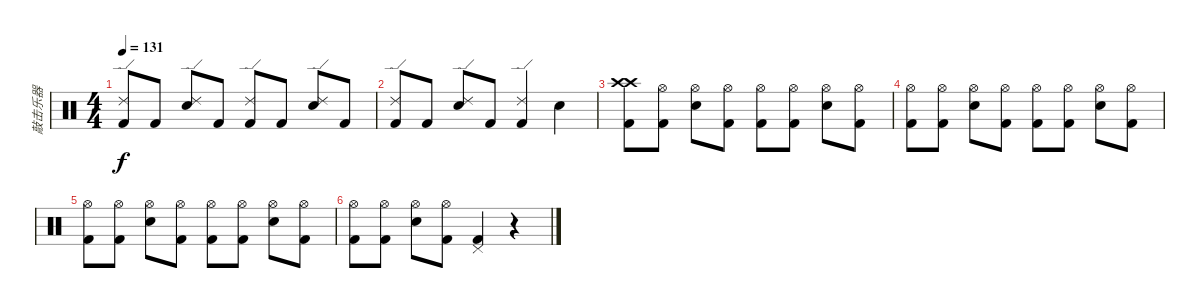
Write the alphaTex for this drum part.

\track ("敲击乐器" "敲击乐器") {instrument percussion}
\staff {score}
\articulation defaults
\ts (4 4)
\tempo 131
\clef neutral
\ks c
("Ride (edge) 2" "Kick (hit) 2").8{dy f} "Kick (hit) 2".8 ("Ride (edge) 2" "Snare (hit) 2").8 "Kick (hit) 2".8 ("Ride (edge) 2" "Kick (hit) 2").8 "Kick (hit) 2".8 ("Ride (edge) 2" "Snare (hit) 2").8 "Kick (hit) 2".8 |
("Ride (edge) 2" "Kick (hit) 2").8 "Kick (hit) 2".8 ("Ride (edge) 2" "Snare (hit) 2").8 "Kick (hit) 2".8 ("Ride (edge) 2" "Kick (hit) 2").4 "Metronome (bell)".4 |
("Crash high (hit)" "Kick (hit) 2" "Crash high (hit)").8 ("Hi-Hat (open)" "Kick (hit) 2").8 ("Hi-Hat (open)" "Snare (hit) 2").8 ("Hi-Hat (open)" "Kick (hit) 2").8 ("Hi-Hat (open)" "Kick (hit) 2").8 ("Hi-Hat (open)" "Kick (hit) 2").8 ("Hi-Hat (open)" "Snare (hit) 2").8 ("Hi-Hat (open)" "Kick (hit) 2").8 |
("Hi-Hat (open)" "Kick (hit) 2").8 ("Hi-Hat (open)" "Kick (hit) 2").8 ("Hi-Hat (open)" "Snare (hit) 2").8 ("Hi-Hat (open)" "Kick (hit) 2").8 ("Hi-Hat (open)" "Kick (hit) 2").8 ("Hi-Hat (open)" "Kick (hit) 2").8 ("Hi-Hat (open)" "Snare (hit) 2").8 ("Hi-Hat (open)" "Kick (hit) 2").8 |
("Hi-Hat (open)" "Kick (hit) 2").8 ("Hi-Hat (open)" "Kick (hit) 2").8 ("Hi-Hat (open)" "Snare (hit) 2").8 ("Hi-Hat (open)" "Kick (hit) 2").8 ("Hi-Hat (open)" "Kick (hit) 2").8 ("Hi-Hat (open)" "Kick (hit) 2").8 ("Hi-Hat (open)" "Snare (hit) 2").8 ("Hi-Hat (open)" "Kick (hit) 2").8 |
("Hi-Hat (open)" "Kick (hit) 2").8 ("Hi-Hat (open)" "Kick (hit) 2").8 ("Hi-Hat (open)" "Snare (hit) 2").8 ("Hi-Hat (open)" "Kick (hit) 2").8 ("Pedal Hi-Hat (hit)" "Kick (hit) 2").4 r.4
